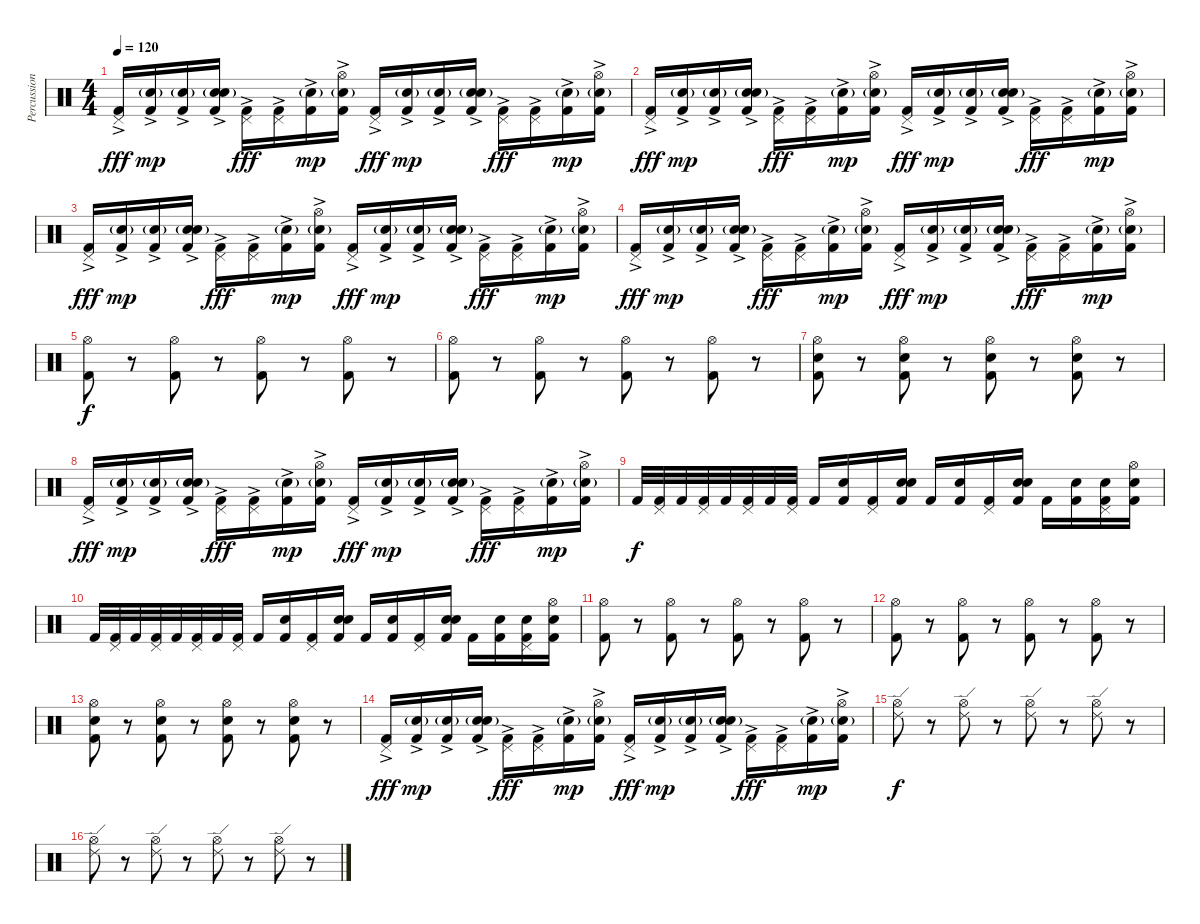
\track ("Percussions" "Percussion") {instrument percussion}
\staff {score}
\articulation defaults
\ts (4 4)
\tempo 120
\clef neutral
\ks c
("Kick (hit) 2"{ac} "Pedal Hi-Hat (hit)").16{dy fff} ("Kick (hit) 2"{ac} "Electric Snare (hit)"{g}).16{dy mp} ("Kick (hit) 2"{ac} "Electric Snare (hit)"{g}).16 ("Kick (hit) 2"{ac} "Electric Snare (hit)"{g} "Snare (hit) 2"{g}).16 ("Kick (hit) 2"{ac} "Pedal Hi-Hat (hit)").16{dy fff} ("Kick (hit) 2"{ac} "Pedal Hi-Hat (hit)").16 ("Kick (hit) 2"{ac} "Electric Snare (hit)"{g}).16{dy mp} ("Kick (hit) 2"{ac} "Electric Snare (hit)"{g} "Hi-Hat (open)").16 ("Kick (hit) 2"{ac} "Pedal Hi-Hat (hit)").16{dy fff} ("Kick (hit) 2"{ac} "Electric Snare (hit)"{g}).16{dy mp} ("Kick (hit) 2"{ac} "Electric Snare (hit)"{g}).16 ("Kick (hit) 2"{ac} "Electric Snare (hit)"{g} "Snare (hit) 2"{g}).16 ("Kick (hit) 2"{ac} "Pedal Hi-Hat (hit)").16{dy fff} ("Kick (hit) 2"{ac} "Pedal Hi-Hat (hit)").16 ("Kick (hit) 2"{ac} "Electric Snare (hit)"{g}).16{dy mp} ("Kick (hit) 2"{ac} "Electric Snare (hit)"{g} "Hi-Hat (open)").16 |
("Kick (hit) 2"{ac} "Pedal Hi-Hat (hit)").16{dy fff} ("Kick (hit) 2"{ac} "Electric Snare (hit)"{g}).16{dy mp} ("Kick (hit) 2"{ac} "Electric Snare (hit)"{g}).16 ("Kick (hit) 2"{ac} "Electric Snare (hit)"{g} "Snare (hit) 2"{g}).16 ("Kick (hit) 2"{ac} "Pedal Hi-Hat (hit)").16{dy fff} ("Kick (hit) 2"{ac} "Pedal Hi-Hat (hit)").16 ("Kick (hit) 2"{ac} "Electric Snare (hit)"{g}).16{dy mp} ("Kick (hit) 2"{ac} "Electric Snare (hit)"{g} "Hi-Hat (open)").16 ("Kick (hit) 2"{ac} "Pedal Hi-Hat (hit)").16{dy fff} ("Kick (hit) 2"{ac} "Electric Snare (hit)"{g}).16{dy mp} ("Kick (hit) 2"{ac} "Electric Snare (hit)"{g}).16 ("Kick (hit) 2"{ac} "Electric Snare (hit)"{g} "Snare (hit) 2"{g}).16 ("Kick (hit) 2"{ac} "Pedal Hi-Hat (hit)").16{dy fff} ("Kick (hit) 2"{ac} "Pedal Hi-Hat (hit)").16 ("Kick (hit) 2"{ac} "Electric Snare (hit)"{g}).16{dy mp} ("Kick (hit) 2"{ac} "Electric Snare (hit)"{g} "Hi-Hat (open)").16 |
("Kick (hit) 2"{ac} "Pedal Hi-Hat (hit)").16{dy fff} ("Kick (hit) 2"{ac} "Electric Snare (hit)"{g}).16{dy mp} ("Kick (hit) 2"{ac} "Electric Snare (hit)"{g}).16 ("Kick (hit) 2"{ac} "Electric Snare (hit)"{g} "Snare (hit) 2"{g}).16 ("Kick (hit) 2"{ac} "Pedal Hi-Hat (hit)").16{dy fff} ("Kick (hit) 2"{ac} "Pedal Hi-Hat (hit)").16 ("Kick (hit) 2"{ac} "Electric Snare (hit)"{g}).16{dy mp} ("Kick (hit) 2"{ac} "Electric Snare (hit)"{g} "Hi-Hat (open)").16 ("Kick (hit) 2"{ac} "Pedal Hi-Hat (hit)").16{dy fff} ("Kick (hit) 2"{ac} "Electric Snare (hit)"{g}).16{dy mp} ("Kick (hit) 2"{ac} "Electric Snare (hit)"{g}).16 ("Kick (hit) 2"{ac} "Electric Snare (hit)"{g} "Snare (hit) 2"{g}).16 ("Kick (hit) 2"{ac} "Pedal Hi-Hat (hit)").16{dy fff} ("Kick (hit) 2"{ac} "Pedal Hi-Hat (hit)").16 ("Kick (hit) 2"{ac} "Electric Snare (hit)"{g}).16{dy mp} ("Kick (hit) 2"{ac} "Electric Snare (hit)"{g} "Hi-Hat (open)").16 |
("Kick (hit) 2"{ac} "Pedal Hi-Hat (hit)").16{dy fff} ("Kick (hit) 2"{ac} "Electric Snare (hit)"{g}).16{dy mp} ("Kick (hit) 2"{ac} "Electric Snare (hit)"{g}).16 ("Kick (hit) 2"{ac} "Electric Snare (hit)"{g} "Snare (hit) 2"{g}).16 ("Kick (hit) 2"{ac} "Pedal Hi-Hat (hit)").16{dy fff} ("Kick (hit) 2"{ac} "Pedal Hi-Hat (hit)").16 ("Kick (hit) 2"{ac} "Electric Snare (hit)"{g}).16{dy mp} ("Kick (hit) 2"{ac} "Electric Snare (hit)"{g} "Hi-Hat (open)").16 ("Kick (hit) 2"{ac} "Pedal Hi-Hat (hit)").16{dy fff} ("Kick (hit) 2"{ac} "Electric Snare (hit)"{g}).16{dy mp} ("Kick (hit) 2"{ac} "Electric Snare (hit)"{g}).16 ("Kick (hit) 2"{ac} "Electric Snare (hit)"{g} "Snare (hit) 2"{g}).16 ("Kick (hit) 2"{ac} "Pedal Hi-Hat (hit)").16{dy fff} ("Kick (hit) 2"{ac} "Pedal Hi-Hat (hit)").16 ("Kick (hit) 2"{ac} "Electric Snare (hit)"{g}).16{dy mp} ("Kick (hit) 2"{ac} "Electric Snare (hit)"{g} "Hi-Hat (open)").16 |
("Hi-Hat (open)" "Kick (hit) 2").8{dy f} r.8 ("Hi-Hat (open)" "Kick (hit) 2").8 r.8 ("Hi-Hat (open)" "Kick (hit) 2").8 r.8 ("Hi-Hat (open)" "Kick (hit) 2").8 r.8 |
("Hi-Hat (open)" "Kick (hit) 2").8 r.8 ("Hi-Hat (open)" "Kick (hit) 2").8 r.8 ("Hi-Hat (open)" "Kick (hit) 2").8 r.8 ("Hi-Hat (open)" "Kick (hit) 2").8 r.8 |
("Hi-Hat (open)" "Kick (hit) 2" "Electric Snare (hit)").8 r.8 ("Hi-Hat (open)" "Kick (hit) 2" "Electric Snare (hit)").8 r.8 ("Hi-Hat (open)" "Kick (hit) 2" "Electric Snare (hit)").8 r.8 ("Hi-Hat (open)" "Kick (hit) 2" "Electric Snare (hit)").8 r.8 |
("Kick (hit) 2"{ac} "Pedal Hi-Hat (hit)").16{dy fff} ("Kick (hit) 2"{ac} "Electric Snare (hit)"{g}).16{dy mp} ("Kick (hit) 2"{ac} "Electric Snare (hit)"{g}).16 ("Kick (hit) 2"{ac} "Electric Snare (hit)"{g} "Snare (hit) 2"{g}).16 ("Kick (hit) 2"{ac} "Pedal Hi-Hat (hit)").16{dy fff} ("Kick (hit) 2"{ac} "Pedal Hi-Hat (hit)").16 ("Kick (hit) 2"{ac} "Electric Snare (hit)"{g}).16{dy mp} ("Kick (hit) 2"{ac} "Electric Snare (hit)"{g} "Hi-Hat (open)").16 ("Kick (hit) 2"{ac} "Pedal Hi-Hat (hit)").16{dy fff} ("Kick (hit) 2"{ac} "Electric Snare (hit)"{g}).16{dy mp} ("Kick (hit) 2"{ac} "Electric Snare (hit)"{g}).16 ("Kick (hit) 2"{ac} "Electric Snare (hit)"{g} "Snare (hit) 2"{g}).16 ("Kick (hit) 2"{ac} "Pedal Hi-Hat (hit)").16{dy fff} ("Kick (hit) 2"{ac} "Pedal Hi-Hat (hit)").16 ("Kick (hit) 2"{ac} "Electric Snare (hit)"{g}).16{dy mp} ("Kick (hit) 2"{ac} "Electric Snare (hit)"{g} "Hi-Hat (open)").16 |
"Kick (hit) 2".32{dy f} ("Kick (hit) 2" "Pedal Hi-Hat (hit)").32 "Kick (hit) 2".32 ("Kick (hit) 2" "Pedal Hi-Hat (hit)").32 "Kick (hit) 2".32 ("Kick (hit) 2" "Pedal Hi-Hat (hit)").32 "Kick (hit) 2".32 ("Kick (hit) 2" "Pedal Hi-Hat (hit)").32 "Kick (hit) 2".16 ("Kick (hit) 2" "Snare (hit) 2").16 ("Kick (hit) 2" "Pedal Hi-Hat (hit)").16 ("Kick (hit) 2" "Electric Snare (hit)" "Snare (hit) 2").16 "Kick (hit) 2".16 ("Kick (hit) 2" "Snare (hit) 2").16 ("Kick (hit) 2" "Pedal Hi-Hat (hit)").16 ("Kick (hit) 2" "Electric Snare (hit)" "Snare (hit) 2").16 "Kick (hit) 2".16 ("Kick (hit) 2" "Snare (hit) 2").16 ("Kick (hit) 2" "Pedal Hi-Hat (hit)" "Electric Snare (hit)").16 ("Kick (hit) 2" "Hi-Hat (open)" "Snare (hit) 2").16 |
"Kick (hit) 2".32 ("Kick (hit) 2" "Pedal Hi-Hat (hit)").32 "Kick (hit) 2".32 ("Kick (hit) 2" "Pedal Hi-Hat (hit)").32 "Kick (hit) 2".32 ("Kick (hit) 2" "Pedal Hi-Hat (hit)").32 "Kick (hit) 2".32 ("Kick (hit) 2" "Pedal Hi-Hat (hit)").32 "Kick (hit) 2".16 ("Kick (hit) 2" "Snare (hit) 2").16 ("Kick (hit) 2" "Pedal Hi-Hat (hit)").16 ("Kick (hit) 2" "Electric Snare (hit)" "Snare (hit) 2").16 "Kick (hit) 2".16 ("Kick (hit) 2" "Snare (hit) 2").16 ("Kick (hit) 2" "Pedal Hi-Hat (hit)").16 ("Kick (hit) 2" "Electric Snare (hit)" "Snare (hit) 2").16 "Kick (hit) 2".16 ("Kick (hit) 2" "Snare (hit) 2").16 ("Kick (hit) 2" "Pedal Hi-Hat (hit)" "Electric Snare (hit)").16 ("Kick (hit) 2" "Hi-Hat (open)" "Snare (hit) 2").16 |
("Hi-Hat (open)" "Kick (hit) 2").8 r.8 ("Hi-Hat (open)" "Kick (hit) 2").8 r.8 ("Hi-Hat (open)" "Kick (hit) 2").8 r.8 ("Hi-Hat (open)" "Kick (hit) 2").8 r.8 |
("Hi-Hat (open)" "Kick (hit) 2").8 r.8 ("Hi-Hat (open)" "Kick (hit) 2").8 r.8 ("Hi-Hat (open)" "Kick (hit) 2").8 r.8 ("Hi-Hat (open)" "Kick (hit) 2").8 r.8 |
("Hi-Hat (open)" "Kick (hit) 2" "Electric Snare (hit)").8 r.8 ("Hi-Hat (open)" "Kick (hit) 2" "Electric Snare (hit)").8 r.8 ("Hi-Hat (open)" "Kick (hit) 2" "Electric Snare (hit)").8 r.8 ("Hi-Hat (open)" "Kick (hit) 2" "Electric Snare (hit)").8 r.8 |
("Kick (hit) 2"{ac} "Pedal Hi-Hat (hit)").16{dy fff} ("Kick (hit) 2"{ac} "Electric Snare (hit)"{g}).16{dy mp} ("Kick (hit) 2"{ac} "Electric Snare (hit)"{g}).16 ("Kick (hit) 2"{ac} "Electric Snare (hit)"{g} "Snare (hit) 2"{g}).16 ("Kick (hit) 2"{ac} "Pedal Hi-Hat (hit)").16{dy fff} ("Kick (hit) 2"{ac} "Pedal Hi-Hat (hit)").16 ("Kick (hit) 2"{ac} "Electric Snare (hit)"{g}).16{dy mp} ("Kick (hit) 2"{ac} "Electric Snare (hit)"{g} "Hi-Hat (open)").16 ("Kick (hit) 2"{ac} "Pedal Hi-Hat (hit)").16{dy fff} ("Kick (hit) 2"{ac} "Electric Snare (hit)"{g}).16{dy mp} ("Kick (hit) 2"{ac} "Electric Snare (hit)"{g}).16 ("Kick (hit) 2"{ac} "Electric Snare (hit)"{g} "Snare (hit) 2"{g}).16 ("Kick (hit) 2"{ac} "Pedal Hi-Hat (hit)").16{dy fff} ("Kick (hit) 2"{ac} "Pedal Hi-Hat (hit)").16 ("Kick (hit) 2"{ac} "Electric Snare (hit)"{g}).16{dy mp} ("Kick (hit) 2"{ac} "Electric Snare (hit)"{g} "Hi-Hat (open)").16 |
("Ride (edge) 2" "Hi-Hat (open)").8{dy f} r.8 ("Ride (edge) 2" "Hi-Hat (open)").8 r.8 ("Ride (edge) 2" "Hi-Hat (open)").8 r.8 ("Ride (edge) 2" "Hi-Hat (open)").8 r.8 |
("Ride (edge) 2" "Hi-Hat (open)").8 r.8 ("Ride (edge) 2" "Hi-Hat (open)").8 r.8 ("Ride (edge) 2" "Hi-Hat (open)").8 r.8 ("Ride (edge) 2" "Hi-Hat (open)").8 r.8
